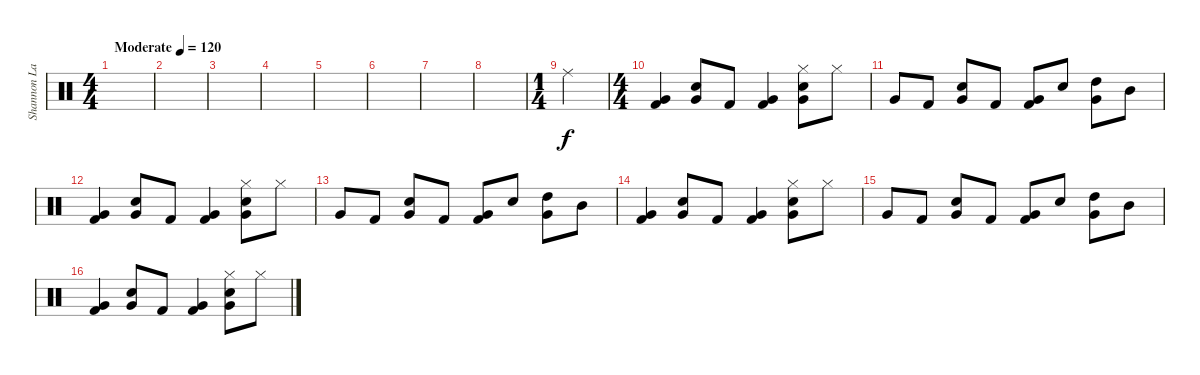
\track ("Shannon Larkin [Drums]" "Shannon La") {instrument percussion}
\staff {score}
\articulation defaults
\ts (4 4)
\tempo (120 "Moderate")
\clef neutral
\ks c
|
|
|
|
|
|
|
|
\ts (1 4)
"Ride (middle)".4 |
\ts (4 4)
("Very Low Tom (hit)" "Kick (hit) 2").4 ("Very Low Tom (hit)" "Electric Snare (hit)").8 "Kick (hit) 2".8 ("Very Low Tom (hit)" "Kick (hit) 2").4 ("Hi-Hat (closed)" "Very Low Tom (hit)" "Electric Snare (hit)").8 "Hi-Hat (closed)".8 |
"Very Low Tom (hit)".8 "Kick (hit) 2".8 ("Very Low Tom (hit)" "Electric Snare (hit)").8 "Kick (hit) 2".8 ("Very Low Tom (hit)" "Kick (hit) 2").8 "Electric Snare (hit)".8 ("Very Low Tom (hit)" "High Tom (hit)").8 "Mid Tom (hit)".8 |
("Very Low Tom (hit)" "Kick (hit) 2").4 ("Very Low Tom (hit)" "Electric Snare (hit)").8 "Kick (hit) 2".8 ("Very Low Tom (hit)" "Kick (hit) 2").4 ("Hi-Hat (closed)" "Very Low Tom (hit)" "Electric Snare (hit)").8 "Hi-Hat (closed)".8 |
"Very Low Tom (hit)".8 "Kick (hit) 2".8 ("Very Low Tom (hit)" "Electric Snare (hit)").8 "Kick (hit) 2".8 ("Very Low Tom (hit)" "Kick (hit) 2").8 "Electric Snare (hit)".8 ("Very Low Tom (hit)" "High Tom (hit)").8 "Mid Tom (hit)".8 |
("Very Low Tom (hit)" "Kick (hit) 2").4 ("Very Low Tom (hit)" "Electric Snare (hit)").8 "Kick (hit) 2".8 ("Very Low Tom (hit)" "Kick (hit) 2").4 ("Hi-Hat (closed)" "Very Low Tom (hit)" "Electric Snare (hit)").8 "Hi-Hat (closed)".8 |
"Very Low Tom (hit)".8 "Kick (hit) 2".8 ("Very Low Tom (hit)" "Electric Snare (hit)").8 "Kick (hit) 2".8 ("Very Low Tom (hit)" "Kick (hit) 2").8 "Electric Snare (hit)".8 ("Very Low Tom (hit)" "High Tom (hit)").8 "Mid Tom (hit)".8 |
("Very Low Tom (hit)" "Kick (hit) 2").4 ("Very Low Tom (hit)" "Electric Snare (hit)").8 "Kick (hit) 2".8 ("Very Low Tom (hit)" "Kick (hit) 2").4 ("Hi-Hat (closed)" "Very Low Tom (hit)" "Electric Snare (hit)").8 "Hi-Hat (closed)".8
